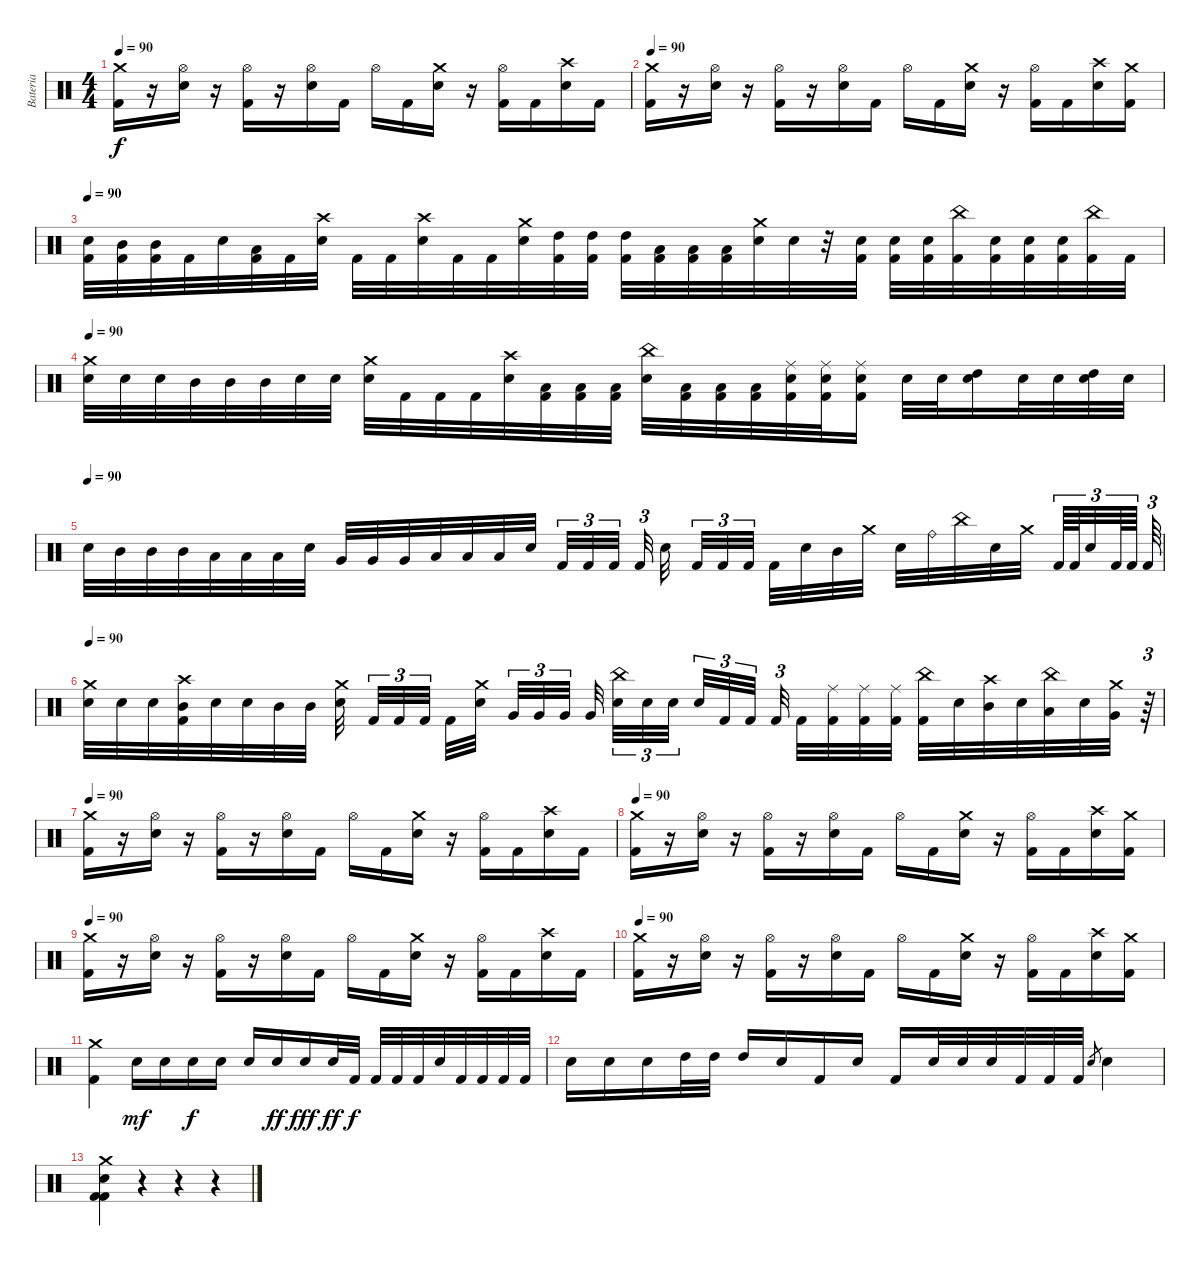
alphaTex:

\track ("Bateria" "Bateria") {instrument percussion}
\staff {score}
\articulation defaults
\ts (4 4)
\tempo 90
\clef neutral
\ks c
("Crash medium (hit)" "Kick (hit) 2").16{dy f} r.16 ("Hi-Hat (open)" "Snare (hit) 2").16 r.16 ("Hi-Hat (open)" "Kick (hit) 2").16 r.16 ("Hi-Hat (open)" "Snare (hit) 2").16 "Kick (hit) 2".16 "Hi-Hat (open)".16 "Kick (hit) 2".16 ("Crash medium (hit)" "Snare (hit) 2").16 r.16 ("Hi-Hat (open)" "Kick (hit) 2").16 "Kick (hit) 2".16 ("Crash high (hit)" "Snare (hit) 2").16 "Kick (hit) 2".16 |
\tempo 90
("Crash medium (hit)" "Kick (hit) 2").16 r.16 ("Hi-Hat (open)" "Snare (hit) 2").16 r.16 ("Hi-Hat (open)" "Kick (hit) 2").16 r.16 ("Hi-Hat (open)" "Snare (hit) 2").16 "Kick (hit) 2".16 "Hi-Hat (open)".16 "Kick (hit) 2".16 ("Crash medium (hit)" "Snare (hit) 2").16 r.16 ("Hi-Hat (open)" "Kick (hit) 2").16 "Kick (hit) 2".16 ("Crash high (hit)" "Snare (hit) 2").16 ("Crash medium (hit)" "Kick (hit) 2").16 |
\tempo 90
("Snare (hit) 2" "Kick (hit) 2").32 ("Mid Tom (hit)" "Kick (hit) 2").32 ("Mid Tom (hit)" "Kick (hit) 2").32 "Kick (hit) 2".32 "Snare (hit) 2".32 ("Low Tom (hit)" "Kick (hit) 2").32 "Kick (hit) 2".32 ("Crash high (hit)" "Snare (hit) 2").32 "Kick (hit) 2".32 "Kick (hit) 2".32 ("Crash high (hit)" "Snare (hit) 2").32 "Kick (hit) 2".32 "Kick (hit) 2".32 ("Crash medium (hit)" "Snare (hit) 2").32 ("High Tom (hit)" "Kick (hit) 2").32 ("High Tom (hit)" "Kick (hit) 2").32 ("High Tom (hit)" "Kick (hit) 2").32 ("Low Tom (hit)" "Kick (hit) 2").32 ("Low Tom (hit)" "Kick (hit) 2").32 ("Low Tom (hit)" "Kick (hit) 2").32 ("Crash medium (hit)" "Snare (hit) 2").32 "Snare (hit) 2".32 r.32 ("Snare (hit) 2" "Kick (hit) 2").32 ("Snare (hit) 2" "Kick (hit) 2").32 ("Snare (hit) 2" "Kick (hit) 2").32 ("China (hit)" "Kick (hit) 2").32 ("Snare (hit) 2" "Kick (hit) 2").32 ("Snare (hit) 2" "Kick (hit) 2").32 ("Snare (hit) 2" "Kick (hit) 2").32 ("China (hit)" "Kick (hit) 2").32 "Kick (hit) 2".32 |
\tempo 90
("Crash medium (hit)" "Snare (hit) 2").32 "Snare (hit) 2".32 "Snare (hit) 2".32 "Mid Tom (hit)".32 "Mid Tom (hit)".32 "Mid Tom (hit)".32 "Snare (hit) 2".32 "Snare (hit) 2".32 ("Crash medium (hit)" "Snare (hit) 2").32 "Kick (hit) 2".32 "Kick (hit) 2".32 "Kick (hit) 2".32 ("Crash high (hit)" "Snare (hit) 2").32 ("Low Tom (hit)" "Kick (hit) 2").32 ("Low Tom (hit)" "Kick (hit) 2").32 ("Low Tom (hit)" "Kick (hit) 2").32 ("China (hit)" "Snare (hit) 2").32 ("Low Tom (hit)" "Kick (hit) 2").32 ("Low Tom (hit)" "Kick (hit) 2").32 ("Low Tom (hit)" "Kick (hit) 2").32 ("Ride (middle)" "Kick (hit) 2" "Snare (hit) 2").32 ("Ride (middle)" "Kick (hit) 2" "Snare (hit) 2").32 ("Ride (middle)" "Kick (hit) 2" "Snare (hit) 2").16 "Snare (hit) 2".32 "Snare (hit) 2".32 ("High Tom (hit)" "Snare (hit) 2").16 "Snare (hit) 2".32 "Snare (hit) 2".32 ("High Tom (hit)" "Snare (hit) 2").32 "Snare (hit) 2".32 |
\tempo (90)
"Snare (hit) 2".32 "Mid Tom (hit)".32 "Mid Tom (hit)".32 "Mid Tom (hit)".32 "Low Tom (hit)".32 "Low Tom (hit)".32 "Low Tom (hit)".32 "Snare (hit) 2".32 "Very Low Tom (hit)".32 "Very Low Tom (hit)".32 "Very Low Tom (hit)".32 "Low Floor Tom (hit)".32 "Low Floor Tom (hit)".32 "Low Floor Tom (hit)".32 "Snare (hit) 2".32 "Kick (hit) 2".32{tu (3 2)} "Kick (hit) 2".32{tu (3 2)} "Kick (hit) 2".32{tu (3 2)} "Kick (hit) 2".32{tu (3 2)} "Snare (hit) 2".32 "Kick (hit) 2".32{tu (3 2)} "Kick (hit) 2".32{tu (3 2)} "Kick (hit) 2".32{tu (3 2)} "Kick (hit) 2".32 "Snare (hit) 2".32 "Mid Tom (hit)".32 "Crash medium (hit)".32 "Snare (hit) 2".32 "Ride (bell)".32 "China (hit)".32 "Snare (hit) 2".32 "Crash medium (hit)".32 "Kick (hit) 2".64{tu (3 2)} "Kick (hit) 2".64{tu (3 2)} "Snare (hit) 2".32{tu (3 2)} "Kick (hit) 2".64{tu (3 2)} "Kick (hit) 2".64{tu (3 2)} "Kick (hit) 2".64{tu (3 2)} |
\tempo 90
("Crash medium (hit)" "Snare (hit) 2").32 "Snare (hit) 2".32 "Snare (hit) 2".32 ("Crash high (hit)" "Mid Tom (hit)" "Kick (hit) 2").32 "Snare (hit) 2".32 "Snare (hit) 2".32 "Mid Tom (hit)".32 "Mid Tom (hit)".32 ("Crash medium (hit)" "Snare (hit) 2").32 "Kick (hit) 2".32{tu (3 2)} "Kick (hit) 2".32{tu (3 2)} "Kick (hit) 2".32{tu (3 2)} "Kick (hit) 2".32 ("Crash medium (hit)" "Snare (hit) 2").32 "Very Low Tom (hit)".32{tu (3 2)} "Very Low Tom (hit)".32{tu (3 2)} "Very Low Tom (hit)".32{tu (3 2)} "Very Low Tom (hit)".32 ("China (hit)" "Snare (hit) 2").32{tu (3 2)} "Snare (hit) 2".32{tu (3 2)} "Snare (hit) 2".32{tu (3 2)} "Snare (hit) 2".32{tu (3 2)} "Kick (hit) 2".32{tu (3 2)} "Kick (hit) 2".32{tu (3 2)} "Kick (hit) 2".32{tu (3 2)} "Kick (hit) 2".32 ("Ride (middle)" "Kick (hit) 2").32 ("Ride (middle)" "Kick (hit) 2").32 ("Ride (middle)" "Kick (hit) 2").32 ("China (hit)" "Kick (hit) 2").32 "Snare (hit) 2".32 ("Crash high (hit)" "Mid Tom (hit)").32 "Snare (hit) 2".32 ("China (hit)" "Low Tom (hit)").32 "Snare (hit) 2".32 ("Crash medium (hit)" "Very Low Tom (hit)").32 r.64{tu (3 2)} |
\tempo 90
("Crash medium (hit)" "Kick (hit) 2").16 r.16 ("Hi-Hat (open)" "Snare (hit) 2").16 r.16 ("Hi-Hat (open)" "Kick (hit) 2").16 r.16 ("Hi-Hat (open)" "Snare (hit) 2").16 "Kick (hit) 2".16 "Hi-Hat (open)".16 "Kick (hit) 2".16 ("Crash medium (hit)" "Snare (hit) 2").16 r.16 ("Hi-Hat (open)" "Kick (hit) 2").16 "Kick (hit) 2".16 ("Crash high (hit)" "Snare (hit) 2").16 "Kick (hit) 2".16 |
\tempo 90
("Crash medium (hit)" "Kick (hit) 2").16 r.16 ("Hi-Hat (open)" "Snare (hit) 2").16 r.16 ("Hi-Hat (open)" "Kick (hit) 2").16 r.16 ("Hi-Hat (open)" "Snare (hit) 2").16 "Kick (hit) 2".16 "Hi-Hat (open)".16 "Kick (hit) 2".16 ("Crash medium (hit)" "Snare (hit) 2").16 r.16 ("Hi-Hat (open)" "Kick (hit) 2").16 "Kick (hit) 2".16 ("Crash high (hit)" "Snare (hit) 2").16 ("Crash medium (hit)" "Kick (hit) 2").16 |
\tempo 90
("Crash medium (hit)" "Kick (hit) 2").16 r.16 ("Hi-Hat (open)" "Snare (hit) 2").16 r.16 ("Hi-Hat (open)" "Kick (hit) 2").16 r.16 ("Hi-Hat (open)" "Snare (hit) 2").16 "Kick (hit) 2".16 "Hi-Hat (open)".16 "Kick (hit) 2".16 ("Crash medium (hit)" "Snare (hit) 2").16 r.16 ("Hi-Hat (open)" "Kick (hit) 2").16 "Kick (hit) 2".16 ("Crash high (hit)" "Snare (hit) 2").16 "Kick (hit) 2".16 |
\tempo 90
("Crash medium (hit)" "Kick (hit) 2").16 r.16 ("Hi-Hat (open)" "Snare (hit) 2").16 r.16 ("Hi-Hat (open)" "Kick (hit) 2").16 r.16 ("Hi-Hat (open)" "Snare (hit) 2").16 "Kick (hit) 2".16 "Hi-Hat (open)".16 "Kick (hit) 2".16 ("Crash medium (hit)" "Snare (hit) 2").16 r.16 ("Hi-Hat (open)" "Kick (hit) 2").16 "Kick (hit) 2".16 ("Crash high (hit)" "Snare (hit) 2").16 ("Crash medium (hit)" "Kick (hit) 2").16 |
("Crash medium (hit)" "Kick (hit) 2").4 "Electric Snare (hit)".16{dy mf} "Electric Snare (hit)".16 "Electric Snare (hit)".16{dy f} "Electric Snare (hit)".16 "Electric Snare (hit)".16 "Electric Snare (hit)".16{dy ff} "Electric Snare (hit)".16{dy fff} "Electric Snare (hit)".32{dy ff} "Kick (hit) 2".32{dy f} "Kick (hit) 2".32 "Kick (hit) 2".32 "Kick (hit) 2".32 "Electric Snare (hit)".32 "Kick (hit) 2".32 "Kick (hit) 2".32 "Kick (hit) 2".32 "Kick (hit) 2".32 |
"Electric Snare (hit)".16 "Electric Snare (hit)".16 "Electric Snare (hit)".16 "High Tom (hit)".32 "High Tom (hit)".32 "High Tom (hit)".16 "Electric Snare (hit)".16 "Kick (hit) 2".16 "Electric Snare (hit)".16 "Kick (hit) 2".16 "Electric Snare (hit)".32 "Electric Snare (hit)".32 "Electric Snare (hit)".32 "Kick (hit) 2".32 "Kick (hit) 2".32 "Kick (hit) 2".32 "Electric Snare (hit)".8{gr} "Electric Snare (hit)".4 |
("Crash medium (hit)" "Electric Snare (hit)" "Kick (hit) 2" "Kick (hit) 2").4 r.4 r.4 r.4
